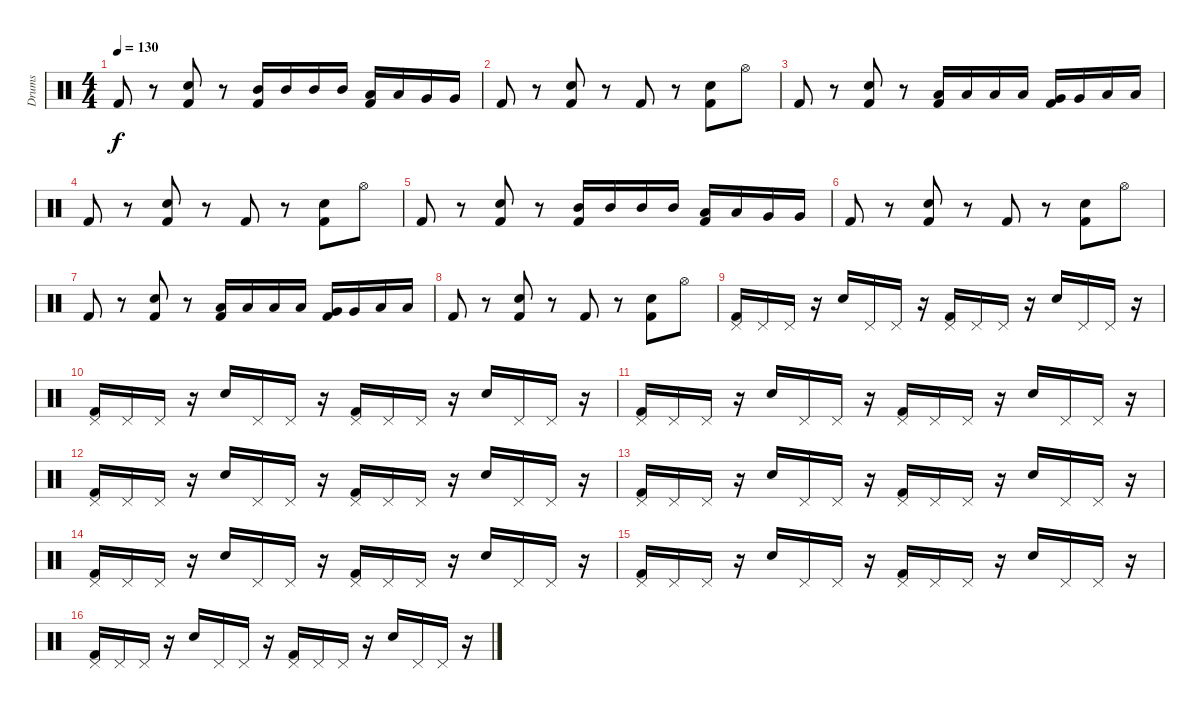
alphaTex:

\track ("Drums" "Drums") {instrument percussion}
\staff {score}
\articulation defaults
\ts (4 4)
\tempo 130
\clef neutral
\ks c "Kick (hit) 2".8{dy f}
r.8 ("Electric Snare (hit)" "Kick (hit) 2").8 r.8 ("Mid Tom (hit)" "Kick (hit) 2").16 "Mid Tom (hit)".16 "Mid Tom (hit)".16 "Mid Tom (hit)".16 ("Low Tom (hit)" "Kick (hit) 2").16 "Low Tom (hit)".16 "Very Low Tom (hit)".16 "Very Low Tom (hit)".16 |
"Kick (hit) 2".8 r.8 ("Electric Snare (hit)" "Kick (hit) 2").8 r.8 "Kick (hit) 2".8 r.8 ("Electric Snare (hit)" "Kick (hit) 2").8 "Hi-Hat (open)".8 |
"Kick (hit) 2".8 r.8 ("Electric Snare (hit)" "Kick (hit) 2").8 r.8 ("Low Tom (hit)" "Kick (hit) 2").16 "Low Tom (hit)".16 "Low Tom (hit)".16 "Low Tom (hit)".16 ("Very Low Tom (hit)" "Kick (hit) 2").16 "Very Low Tom (hit)".16 "Low Floor Tom (hit)".16 "Low Floor Tom (hit)".16 |
"Kick (hit) 2".8 r.8 ("Electric Snare (hit)" "Kick (hit) 2").8 r.8 "Kick (hit) 2".8 r.8 ("Electric Snare (hit)" "Kick (hit) 2").8 "Hi-Hat (open)".8 |
"Kick (hit) 2".8 r.8 ("Electric Snare (hit)" "Kick (hit) 2").8 r.8 ("Mid Tom (hit)" "Kick (hit) 2").16 "Mid Tom (hit)".16 "Mid Tom (hit)".16 "Mid Tom (hit)".16 ("Low Tom (hit)" "Kick (hit) 2").16 "Low Tom (hit)".16 "Very Low Tom (hit)".16 "Very Low Tom (hit)".16 |
"Kick (hit) 2".8 r.8 ("Electric Snare (hit)" "Kick (hit) 2").8 r.8 "Kick (hit) 2".8 r.8 ("Electric Snare (hit)" "Kick (hit) 2").8 "Hi-Hat (open)".8 |
"Kick (hit) 2".8 r.8 ("Electric Snare (hit)" "Kick (hit) 2").8 r.8 ("Low Tom (hit)" "Kick (hit) 2").16 "Low Tom (hit)".16 "Low Tom (hit)".16 "Low Tom (hit)".16 ("Very Low Tom (hit)" "Kick (hit) 2").16 "Very Low Tom (hit)".16 "Low Floor Tom (hit)".16 "Low Floor Tom (hit)".16 |
"Kick (hit) 2".8 r.8 ("Electric Snare (hit)" "Kick (hit) 2").8 r.8 "Kick (hit) 2".8 r.8 ("Electric Snare (hit)" "Kick (hit) 2").8 "Hi-Hat (open)".8 |
("Pedal Hi-Hat (hit)" "Kick (hit) 2").16 "Pedal Hi-Hat (hit)".16 "Pedal Hi-Hat (hit)".16 r.16 "Electric Snare (hit)".16 "Pedal Hi-Hat (hit)".16 "Pedal Hi-Hat (hit)".16 r.16 ("Pedal Hi-Hat (hit)" "Kick (hit) 2").16 "Pedal Hi-Hat (hit)".16 "Pedal Hi-Hat (hit)".16 r.16 "Electric Snare (hit)".16 "Pedal Hi-Hat (hit)".16 "Pedal Hi-Hat (hit)".16 r.16 |
("Pedal Hi-Hat (hit)" "Kick (hit) 2").16 "Pedal Hi-Hat (hit)".16 "Pedal Hi-Hat (hit)".16 r.16 "Electric Snare (hit)".16 "Pedal Hi-Hat (hit)".16 "Pedal Hi-Hat (hit)".16 r.16 ("Pedal Hi-Hat (hit)" "Kick (hit) 2").16 "Pedal Hi-Hat (hit)".16 "Pedal Hi-Hat (hit)".16 r.16 "Electric Snare (hit)".16 "Pedal Hi-Hat (hit)".16 "Pedal Hi-Hat (hit)".16 r.16 |
("Pedal Hi-Hat (hit)" "Kick (hit) 2").16 "Pedal Hi-Hat (hit)".16 "Pedal Hi-Hat (hit)".16 r.16 "Electric Snare (hit)".16 "Pedal Hi-Hat (hit)".16 "Pedal Hi-Hat (hit)".16 r.16 ("Pedal Hi-Hat (hit)" "Kick (hit) 2").16 "Pedal Hi-Hat (hit)".16 "Pedal Hi-Hat (hit)".16 r.16 "Electric Snare (hit)".16 "Pedal Hi-Hat (hit)".16 "Pedal Hi-Hat (hit)".16 r.16 |
("Pedal Hi-Hat (hit)" "Kick (hit) 2").16 "Pedal Hi-Hat (hit)".16 "Pedal Hi-Hat (hit)".16 r.16 "Electric Snare (hit)".16 "Pedal Hi-Hat (hit)".16 "Pedal Hi-Hat (hit)".16 r.16 ("Pedal Hi-Hat (hit)" "Kick (hit) 2").16 "Pedal Hi-Hat (hit)".16 "Pedal Hi-Hat (hit)".16 r.16 "Electric Snare (hit)".16 "Pedal Hi-Hat (hit)".16 "Pedal Hi-Hat (hit)".16 r.16 |
("Pedal Hi-Hat (hit)" "Kick (hit) 2").16 "Pedal Hi-Hat (hit)".16 "Pedal Hi-Hat (hit)".16 r.16 "Electric Snare (hit)".16 "Pedal Hi-Hat (hit)".16 "Pedal Hi-Hat (hit)".16 r.16 ("Pedal Hi-Hat (hit)" "Kick (hit) 2").16 "Pedal Hi-Hat (hit)".16 "Pedal Hi-Hat (hit)".16 r.16 "Electric Snare (hit)".16 "Pedal Hi-Hat (hit)".16 "Pedal Hi-Hat (hit)".16 r.16 |
("Pedal Hi-Hat (hit)" "Kick (hit) 2").16 "Pedal Hi-Hat (hit)".16 "Pedal Hi-Hat (hit)".16 r.16 "Electric Snare (hit)".16 "Pedal Hi-Hat (hit)".16 "Pedal Hi-Hat (hit)".16 r.16 ("Pedal Hi-Hat (hit)" "Kick (hit) 2").16 "Pedal Hi-Hat (hit)".16 "Pedal Hi-Hat (hit)".16 r.16 "Electric Snare (hit)".16 "Pedal Hi-Hat (hit)".16 "Pedal Hi-Hat (hit)".16 r.16 |
("Pedal Hi-Hat (hit)" "Kick (hit) 2").16 "Pedal Hi-Hat (hit)".16 "Pedal Hi-Hat (hit)".16 r.16 "Electric Snare (hit)".16 "Pedal Hi-Hat (hit)".16 "Pedal Hi-Hat (hit)".16 r.16 ("Pedal Hi-Hat (hit)" "Kick (hit) 2").16 "Pedal Hi-Hat (hit)".16 "Pedal Hi-Hat (hit)".16 r.16 "Electric Snare (hit)".16 "Pedal Hi-Hat (hit)".16 "Pedal Hi-Hat (hit)".16 r.16 |
("Pedal Hi-Hat (hit)" "Kick (hit) 2").16 "Pedal Hi-Hat (hit)".16 "Pedal Hi-Hat (hit)".16 r.16 "Electric Snare (hit)".16 "Pedal Hi-Hat (hit)".16 "Pedal Hi-Hat (hit)".16 r.16 ("Pedal Hi-Hat (hit)" "Kick (hit) 2").16 "Pedal Hi-Hat (hit)".16 "Pedal Hi-Hat (hit)".16 r.16 "Electric Snare (hit)".16 "Pedal Hi-Hat (hit)".16 "Pedal Hi-Hat (hit)".16 r.16
